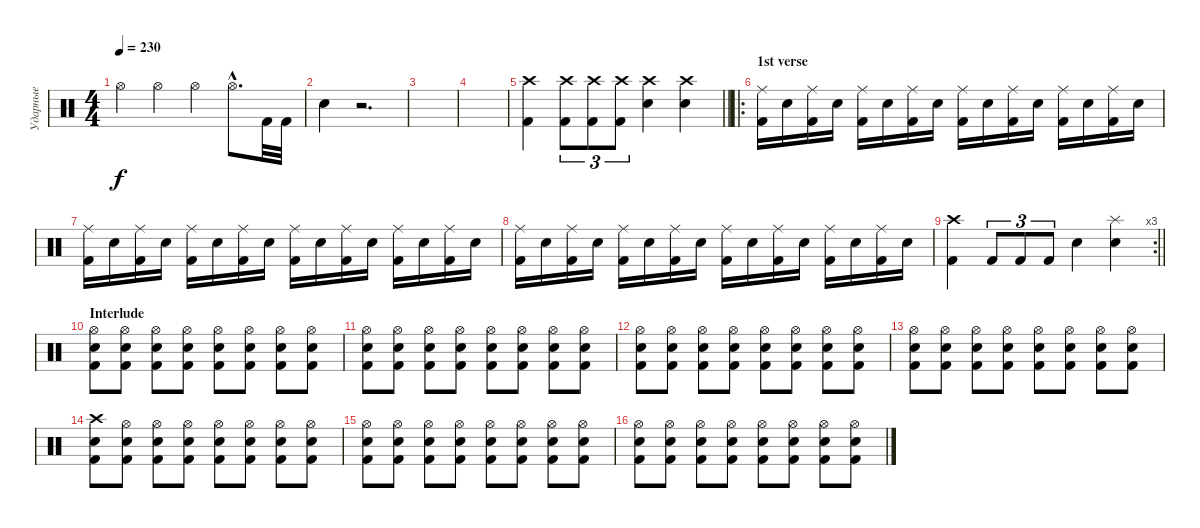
\track ("Ударные" "Ударные") {instrument percussion}
\staff {score}
\articulation defaults
\ts (4 4)
\tempo 230
\clef neutral
\ks c "Hi-Hat (open)".4{dy f} "Hi-Hat (open)".4 "Hi-Hat (open)".4 "Hi-Hat (open)"{hac}.8{d} "Kick (hit) 2".32 "Kick (hit) 2".32
|
"Snare (hit) 2".4 r.2{d} |
|
|
\barLineRight lightlight
("Crash high (hit)" "Kick (hit) 2").4 ("Crash high (hit)" "Kick (hit) 2").8{tu (3 2)} ("Crash high (hit)" "Kick (hit) 2").8{tu (3 2)} ("Crash high (hit)" "Kick (hit) 2").8{tu (3 2)} ("Crash high (hit)" "Snare (hit) 2").4 ("Crash high (hit)" "Snare (hit) 2").4 |
\ro
\section ("" "1st verse")
("Ride (middle)" "Kick (hit) 2").16 "Snare (hit) 2".16 ("Ride (middle)" "Kick (hit) 2").16 "Snare (hit) 2".16 ("Ride (middle)" "Kick (hit) 2").16 "Snare (hit) 2".16 ("Ride (middle)" "Kick (hit) 2").16 "Snare (hit) 2".16 ("Ride (middle)" "Kick (hit) 2").16 "Snare (hit) 2".16 ("Ride (middle)" "Kick (hit) 2").16 "Snare (hit) 2".16 ("Ride (middle)" "Kick (hit) 2").16 "Snare (hit) 2".16 ("Ride (middle)" "Kick (hit) 2").16 "Snare (hit) 2".16 |
("Ride (middle)" "Kick (hit) 2").16 "Snare (hit) 2".16 ("Ride (middle)" "Kick (hit) 2").16 "Snare (hit) 2".16 ("Ride (middle)" "Kick (hit) 2").16 "Snare (hit) 2".16 ("Ride (middle)" "Kick (hit) 2").16 "Snare (hit) 2".16 ("Ride (middle)" "Kick (hit) 2").16 "Snare (hit) 2".16 ("Ride (middle)" "Kick (hit) 2").16 "Snare (hit) 2".16 ("Ride (middle)" "Kick (hit) 2").16 "Snare (hit) 2".16 ("Ride (middle)" "Kick (hit) 2").16 "Snare (hit) 2".16 |
("Ride (middle)" "Kick (hit) 2").16 "Snare (hit) 2".16 ("Ride (middle)" "Kick (hit) 2").16 "Snare (hit) 2".16 ("Ride (middle)" "Kick (hit) 2").16 "Snare (hit) 2".16 ("Ride (middle)" "Kick (hit) 2").16 "Snare (hit) 2".16 ("Ride (middle)" "Kick (hit) 2").16 "Snare (hit) 2".16 ("Ride (middle)" "Kick (hit) 2").16 "Snare (hit) 2".16 ("Ride (middle)" "Kick (hit) 2").16 "Snare (hit) 2".16 ("Ride (middle)" "Kick (hit) 2").16 "Snare (hit) 2".16 |
\rc 3
\barLineRight lightlight
("Crash high (hit)" "Kick (hit) 2").4 "Kick (hit) 2".8{tu (3 2)} "Kick (hit) 2".8{tu (3 2)} "Kick (hit) 2".8{tu (3 2)} "Snare (hit) 2".4 ("Splash (hit)" "Snare (hit) 2").4 |
\section ("" "Interlude")
("Hi-Hat (open)" "Snare (hit) 2" "Kick (hit) 2").8 ("Hi-Hat (open)" "Snare (hit) 2" "Kick (hit) 2").8 ("Hi-Hat (open)" "Snare (hit) 2" "Kick (hit) 2").8 ("Hi-Hat (open)" "Snare (hit) 2" "Kick (hit) 2").8 ("Hi-Hat (open)" "Snare (hit) 2" "Kick (hit) 2").8 ("Hi-Hat (open)" "Snare (hit) 2" "Kick (hit) 2").8 ("Hi-Hat (open)" "Snare (hit) 2" "Kick (hit) 2").8 ("Hi-Hat (open)" "Snare (hit) 2" "Kick (hit) 2").8 |
("Hi-Hat (open)" "Snare (hit) 2" "Kick (hit) 2").8 ("Hi-Hat (open)" "Snare (hit) 2" "Kick (hit) 2").8 ("Hi-Hat (open)" "Snare (hit) 2" "Kick (hit) 2").8 ("Hi-Hat (open)" "Snare (hit) 2" "Kick (hit) 2").8 ("Hi-Hat (open)" "Snare (hit) 2" "Kick (hit) 2").8 ("Hi-Hat (open)" "Snare (hit) 2" "Kick (hit) 2").8 ("Hi-Hat (open)" "Snare (hit) 2" "Kick (hit) 2").8 ("Hi-Hat (open)" "Snare (hit) 2" "Kick (hit) 2").8 |
("Hi-Hat (open)" "Snare (hit) 2" "Kick (hit) 2").8 ("Hi-Hat (open)" "Snare (hit) 2" "Kick (hit) 2").8 ("Hi-Hat (open)" "Snare (hit) 2" "Kick (hit) 2").8 ("Hi-Hat (open)" "Snare (hit) 2" "Kick (hit) 2").8 ("Hi-Hat (open)" "Snare (hit) 2" "Kick (hit) 2").8 ("Hi-Hat (open)" "Snare (hit) 2" "Kick (hit) 2").8 ("Hi-Hat (open)" "Snare (hit) 2" "Kick (hit) 2").8 ("Hi-Hat (open)" "Snare (hit) 2" "Kick (hit) 2").8 |
("Hi-Hat (open)" "Snare (hit) 2" "Kick (hit) 2").8 ("Hi-Hat (open)" "Snare (hit) 2" "Kick (hit) 2").8 ("Hi-Hat (open)" "Snare (hit) 2" "Kick (hit) 2").8 ("Hi-Hat (open)" "Snare (hit) 2" "Kick (hit) 2").8 ("Hi-Hat (open)" "Snare (hit) 2" "Kick (hit) 2").8 ("Hi-Hat (open)" "Snare (hit) 2" "Kick (hit) 2").8 ("Hi-Hat (open)" "Snare (hit) 2" "Kick (hit) 2").8 ("Hi-Hat (open)" "Snare (hit) 2" "Kick (hit) 2").8 |
("Crash high (hit)" "Snare (hit) 2" "Kick (hit) 2").8 ("Hi-Hat (open)" "Snare (hit) 2" "Kick (hit) 2").8 ("Hi-Hat (open)" "Snare (hit) 2" "Kick (hit) 2").8 ("Hi-Hat (open)" "Snare (hit) 2" "Kick (hit) 2").8 ("Hi-Hat (open)" "Snare (hit) 2" "Kick (hit) 2").8 ("Hi-Hat (open)" "Snare (hit) 2" "Kick (hit) 2").8 ("Hi-Hat (open)" "Snare (hit) 2" "Kick (hit) 2").8 ("Hi-Hat (open)" "Snare (hit) 2" "Kick (hit) 2").8 |
("Hi-Hat (open)" "Snare (hit) 2" "Kick (hit) 2").8 ("Hi-Hat (open)" "Snare (hit) 2" "Kick (hit) 2").8 ("Hi-Hat (open)" "Snare (hit) 2" "Kick (hit) 2").8 ("Hi-Hat (open)" "Snare (hit) 2" "Kick (hit) 2").8 ("Hi-Hat (open)" "Snare (hit) 2" "Kick (hit) 2").8 ("Hi-Hat (open)" "Snare (hit) 2" "Kick (hit) 2").8 ("Hi-Hat (open)" "Snare (hit) 2" "Kick (hit) 2").8 ("Hi-Hat (open)" "Snare (hit) 2" "Kick (hit) 2").8 |
("Hi-Hat (open)" "Snare (hit) 2" "Kick (hit) 2").8 ("Hi-Hat (open)" "Snare (hit) 2" "Kick (hit) 2").8 ("Hi-Hat (open)" "Snare (hit) 2" "Kick (hit) 2").8 ("Hi-Hat (open)" "Snare (hit) 2" "Kick (hit) 2").8 ("Hi-Hat (open)" "Snare (hit) 2" "Kick (hit) 2").8 ("Hi-Hat (open)" "Snare (hit) 2" "Kick (hit) 2").8 ("Hi-Hat (open)" "Snare (hit) 2" "Kick (hit) 2").8 ("Hi-Hat (open)" "Snare (hit) 2" "Kick (hit) 2").8
